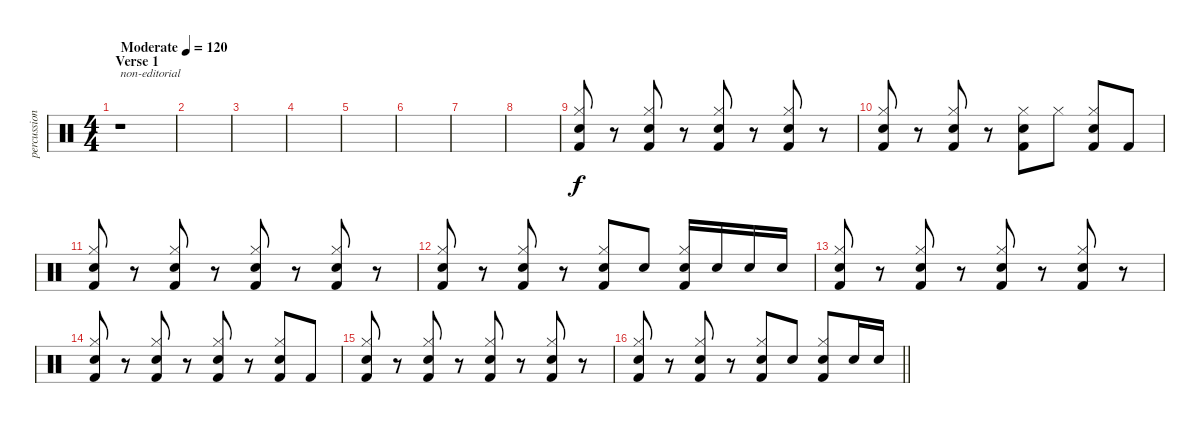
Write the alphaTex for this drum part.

\track ("percussion" "percussion") {instrument percussion}
\staff {score}
\articulation defaults
\ts (4 4)
\section ("" "Verse 1")
\tempo (120 "Moderate")
\clef neutral
\ks c
r.1{txt "non-editorial" dy f} |
|
|
|
|
|
|
|
("Snare (hit) 2" "Hi-Hat (closed)" "Kick (hit) 2").8 r.8 ("Snare (hit) 2" "Hi-Hat (closed)" "Kick (hit) 2").8 r.8 ("Snare (hit) 2" "Hi-Hat (closed)" "Kick (hit) 2").8 r.8 ("Snare (hit) 2" "Hi-Hat (closed)" "Kick (hit) 2").8 r.8 |
("Snare (hit) 2" "Hi-Hat (closed)" "Kick (hit) 2").8 r.8 ("Snare (hit) 2" "Hi-Hat (closed)" "Kick (hit) 2").8 r.8 ("Snare (hit) 2" "Hi-Hat (closed)" "Kick (hit) 2").8 "Hi-Hat (closed)".8 ("Snare (hit) 2" "Hi-Hat (closed)" "Kick (hit) 2").8 "Kick (hit) 2".8 |
("Snare (hit) 2" "Hi-Hat (closed)" "Kick (hit) 2").8 r.8 ("Snare (hit) 2" "Hi-Hat (closed)" "Kick (hit) 2").8 r.8 ("Snare (hit) 2" "Hi-Hat (closed)" "Kick (hit) 2").8 r.8 ("Snare (hit) 2" "Hi-Hat (closed)" "Kick (hit) 2").8 r.8 |
("Snare (hit) 2" "Hi-Hat (closed)" "Kick (hit) 2").8 r.8 ("Snare (hit) 2" "Hi-Hat (closed)" "Kick (hit) 2").8 r.8 ("Snare (hit) 2" "Hi-Hat (closed)" "Kick (hit) 2").8 "Snare (hit) 2".8 ("Snare (hit) 2" "Hi-Hat (closed)" "Kick (hit) 2").16 "Snare (hit) 2".16 "Snare (hit) 2".16 "Snare (hit) 2".16 |
("Snare (hit) 2" "Hi-Hat (closed)" "Kick (hit) 2").8 r.8 ("Snare (hit) 2" "Hi-Hat (closed)" "Kick (hit) 2").8 r.8 ("Snare (hit) 2" "Hi-Hat (closed)" "Kick (hit) 2").8 r.8 ("Snare (hit) 2" "Hi-Hat (closed)" "Kick (hit) 2").8 r.8 |
("Snare (hit) 2" "Hi-Hat (closed)" "Kick (hit) 2").8 r.8 ("Snare (hit) 2" "Hi-Hat (closed)" "Kick (hit) 2").8 r.8 ("Snare (hit) 2" "Hi-Hat (closed)" "Kick (hit) 2").8 r.8 ("Snare (hit) 2" "Hi-Hat (closed)" "Kick (hit) 2").8 "Kick (hit) 2".8 |
("Snare (hit) 2" "Hi-Hat (closed)" "Kick (hit) 2").8 r.8 ("Snare (hit) 2" "Hi-Hat (closed)" "Kick (hit) 2").8 r.8 ("Snare (hit) 2" "Hi-Hat (closed)" "Kick (hit) 2").8 r.8 ("Snare (hit) 2" "Hi-Hat (closed)" "Kick (hit) 2").8 r.8 |
\barLineRight lightlight
("Snare (hit) 2" "Hi-Hat (closed)" "Kick (hit) 2").8 r.8 ("Snare (hit) 2" "Hi-Hat (closed)" "Kick (hit) 2").8 r.8 ("Snare (hit) 2" "Hi-Hat (closed)" "Kick (hit) 2").8 "Snare (hit) 2".8 ("Snare (hit) 2" "Hi-Hat (closed)" "Kick (hit) 2").8 "Snare (hit) 2".16 "Snare (hit) 2".16
